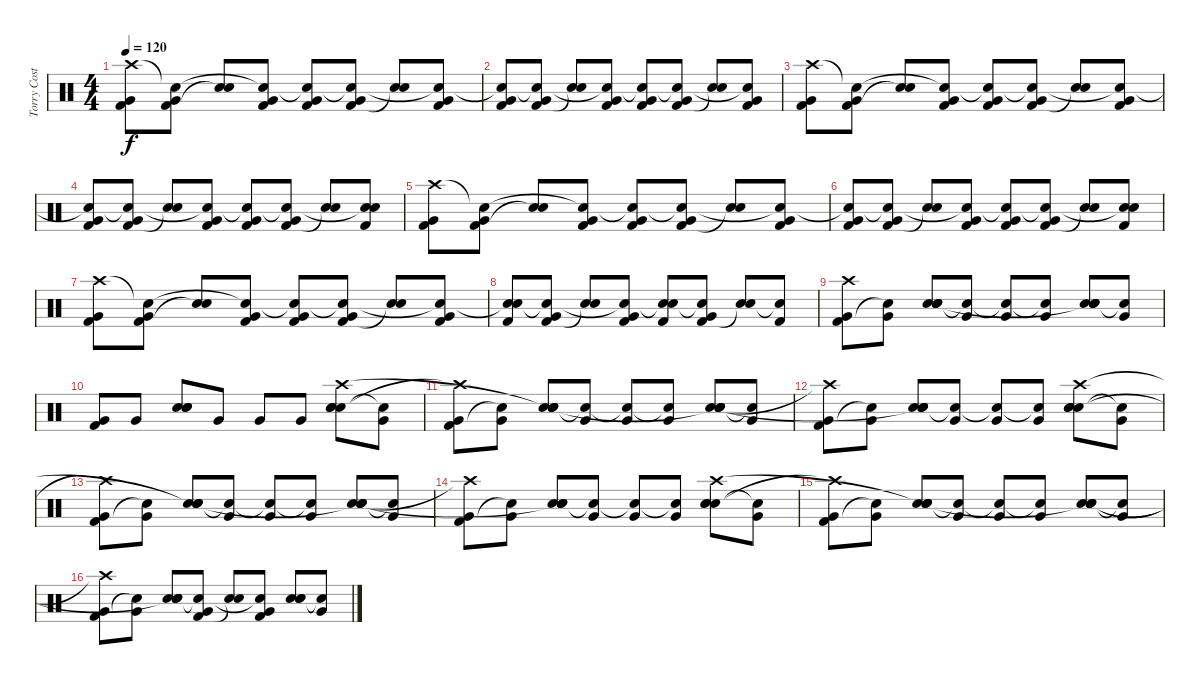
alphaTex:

\track ("Torry Costellano" "Torry Cost") {instrument percussion}
\staff {score}
\articulation defaults
\ts (4 4)
\tempo 120
\clef neutral
\ks c
("Very Low Tom (hit)" "Kick (hit) 2" "Crash high (hit)").8{dy f} ("Very Low Tom (hit)" "Kick (hit) 2" "Snare (hit)"{t}).8 ("Electric Snare (hit)" "Snare (hit)"{t}).8 ("Very Low Tom (hit)" "Kick (hit) 2" "Snare (hit)"{t}).8 ("Very Low Tom (hit)" "Kick (hit) 2" "Snare (hit)"{t}).8 ("Very Low Tom (hit)" "Kick (hit) 2" "Snare (hit)"{t}).8 ("Electric Snare (hit)" "Snare (hit)"{t}).8 ("Very Low Tom (hit)" "Kick (hit) 2" "Snare (hit)"{t}).8 |
("Very Low Tom (hit)" "Kick (hit) 2" "Snare (hit)"{t}).8 ("Very Low Tom (hit)" "Kick (hit) 2" "Snare (hit)"{t}).8 ("Electric Snare (hit)" "Snare (hit)"{t}).8 ("Very Low Tom (hit)" "Kick (hit) 2" "Snare (hit)"{t}).8 ("Very Low Tom (hit)" "Kick (hit) 2" "Snare (hit)"{t}).8 ("Very Low Tom (hit)" "Kick (hit) 2" "Snare (hit)"{t}).8 ("Electric Snare (hit)" "Snare (hit)"{t}).8 ("Very Low Tom (hit)" "Kick (hit) 2" "Snare (hit)"{t}).8 |
("Very Low Tom (hit)" "Kick (hit) 2" "Crash high (hit)").8 ("Very Low Tom (hit)" "Kick (hit) 2" "Snare (hit)"{t}).8 ("Electric Snare (hit)" "Snare (hit)"{t}).8 ("Very Low Tom (hit)" "Kick (hit) 2" "Snare (hit)"{t}).8 ("Very Low Tom (hit)" "Kick (hit) 2" "Snare (hit)"{t}).8 ("Very Low Tom (hit)" "Kick (hit) 2" "Snare (hit)"{t}).8 ("Electric Snare (hit)" "Snare (hit)"{t}).8 ("Very Low Tom (hit)" "Kick (hit) 2" "Snare (hit)"{t}).8 |
("Very Low Tom (hit)" "Kick (hit) 2" "Snare (hit)"{t}).8 ("Very Low Tom (hit)" "Kick (hit) 2" "Snare (hit)"{t}).8 ("Electric Snare (hit)" "Snare (hit)"{t}).8 ("Very Low Tom (hit)" "Kick (hit) 2" "Snare (hit)"{t}).8 ("Very Low Tom (hit)" "Kick (hit) 2" "Snare (hit)"{t}).8 ("Very Low Tom (hit)" "Kick (hit) 2" "Snare (hit)"{t}).8 ("Electric Snare (hit)" "Snare (hit)"{t}).8 ("Electric Snare (hit)" "Kick (hit) 2" "Snare (hit)"{t}).8 |
("Very Low Tom (hit)" "Kick (hit) 2" "Crash high (hit)").8 ("Very Low Tom (hit)" "Kick (hit) 2" "Snare (hit)"{t}).8 ("Electric Snare (hit)" "Snare (hit)"{t}).8 ("Very Low Tom (hit)" "Kick (hit) 2" "Snare (hit)"{t}).8 ("Very Low Tom (hit)" "Kick (hit) 2" "Snare (hit)"{t}).8 ("Very Low Tom (hit)" "Kick (hit) 2" "Snare (hit)"{t}).8 ("Electric Snare (hit)" "Snare (hit)"{t}).8 ("Very Low Tom (hit)" "Kick (hit) 2" "Snare (hit)"{t}).8 |
("Very Low Tom (hit)" "Kick (hit) 2" "Snare (hit)"{t}).8 ("Very Low Tom (hit)" "Kick (hit) 2" "Snare (hit)"{t}).8 ("Electric Snare (hit)" "Snare (hit)"{t}).8 ("Very Low Tom (hit)" "Kick (hit) 2" "Snare (hit)"{t}).8 ("Very Low Tom (hit)" "Kick (hit) 2" "Snare (hit)"{t}).8 ("Very Low Tom (hit)" "Kick (hit) 2" "Snare (hit)"{t}).8 ("Electric Snare (hit)" "Snare (hit)"{t}).8 ("Electric Snare (hit)" "Kick (hit) 2" "Snare (hit)"{t}).8 |
("Very Low Tom (hit)" "Kick (hit) 2" "Crash high (hit)").8 ("Very Low Tom (hit)" "Kick (hit) 2" "Snare (hit)"{t}).8 ("Electric Snare (hit)" "Snare (hit)"{t}).8 ("Very Low Tom (hit)" "Kick (hit) 2" "Snare (hit)"{t}).8 ("Very Low Tom (hit)" "Kick (hit) 2" "Snare (hit)"{t}).8 ("Very Low Tom (hit)" "Kick (hit) 2" "Snare (hit)"{t}).8 ("Electric Snare (hit)" "Snare (hit)"{t}).8 ("Very Low Tom (hit)" "Kick (hit) 2" "Snare (hit)"{t}).8 |
("Electric Snare (hit)" "Kick (hit) 2" "Snare (hit)"{t}).8 ("Very Low Tom (hit)" "Kick (hit) 2" "Snare (hit)"{t}).8 ("Electric Snare (hit)" "Snare (hit)"{t}).8 ("Very Low Tom (hit)" "Kick (hit) 2" "Snare (hit)"{t}).8 ("Electric Snare (hit)" "Kick (hit) 2" "Snare (hit)"{t}).8 ("Very Low Tom (hit)" "Kick (hit) 2" "Snare (hit)"{t}).8 ("Electric Snare (hit)" "Snare (hit)"{t}).8 ("Kick (hit) 2" "Snare (hit)"{t}).8 |
("Very Low Tom (hit)" "Kick (hit) 2" "Crash high (hit)").8 ("Very Low Tom (hit)" "Snare (hit)"{t}).8 ("Hand Clap (hit)" "Hand Clap (hit)" "Electric Snare (hit)" "Snare (hit)").8 ("Very Low Tom (hit)" "Snare (hit)"{t}).8 ("Very Low Tom (hit)" "Snare (hit)"{t}).8 ("Very Low Tom (hit)" "Snare (hit)"{t}).8 ("Hand Clap (hit)" "Hand Clap (hit)" "Electric Snare (hit)" "Snare (hit)"{t}).8 ("Very Low Tom (hit)" "Snare (hit)"{t}).8 |
("Very Low Tom (hit)" "Kick (hit) 2").8 "Very Low Tom (hit)".8 ("Hand Clap (hit)" "Hand Clap (hit)" "Electric Snare (hit)").8 "Very Low Tom (hit)".8 "Very Low Tom (hit)".8 "Very Low Tom (hit)".8 ("Hand Clap (hit)" "Hand Clap (hit)" "Electric Snare (hit)" "Crash high (hit)").8 ("Very Low Tom (hit)" "Snare (hit)"{t}).8 |
("Very Low Tom (hit)" "Kick (hit) 2" "Crash high (hit)"{t}).8 ("Very Low Tom (hit)" "Snare (hit)"{t}).8 ("Hand Clap (hit)" "Hand Clap (hit)" "Electric Snare (hit)" "Snare (hit)"{t}).8 ("Very Low Tom (hit)" "Snare (hit)"{t}).8 ("Very Low Tom (hit)" "Snare (hit)"{t}).8 ("Very Low Tom (hit)" "Snare (hit)"{t}).8 ("Hand Clap (hit)" "Hand Clap (hit)" "Electric Snare (hit)" "Snare (hit)"{t}).8 ("Very Low Tom (hit)" "Snare (hit)"{t}).8 |
("Very Low Tom (hit)" "Kick (hit) 2" "Crash high (hit)"{t}).8 ("Very Low Tom (hit)" "Snare (hit)"{t}).8 ("Hand Clap (hit)" "Hand Clap (hit)" "Electric Snare (hit)" "Snare (hit)"{t}).8 ("Very Low Tom (hit)" "Snare (hit)"{t}).8 ("Very Low Tom (hit)" "Snare (hit)"{t}).8 ("Very Low Tom (hit)" "Snare (hit)"{t}).8 ("Hand Clap (hit)" "Hand Clap (hit)" "Electric Snare (hit)" "Crash high (hit)").8 ("Very Low Tom (hit)" "Snare (hit)"{t}).8 |
("Very Low Tom (hit)" "Kick (hit) 2" "Crash high (hit)"{t}).8 ("Very Low Tom (hit)" "Snare (hit)"{t}).8 ("Hand Clap (hit)" "Hand Clap (hit)" "Electric Snare (hit)" "Snare (hit)"{t}).8 ("Very Low Tom (hit)" "Snare (hit)"{t}).8 ("Very Low Tom (hit)" "Snare (hit)"{t}).8 ("Very Low Tom (hit)" "Snare (hit)"{t}).8 ("Hand Clap (hit)" "Hand Clap (hit)" "Electric Snare (hit)" "Snare (hit)"{t}).8 ("Very Low Tom (hit)" "Snare (hit)"{t}).8 |
("Very Low Tom (hit)" "Kick (hit) 2" "Crash high (hit)"{t}).8 ("Very Low Tom (hit)" "Snare (hit)"{t}).8 ("Hand Clap (hit)" "Hand Clap (hit)" "Electric Snare (hit)" "Snare (hit)"{t}).8 ("Very Low Tom (hit)" "Snare (hit)"{t}).8 ("Very Low Tom (hit)" "Snare (hit)"{t}).8 ("Very Low Tom (hit)" "Snare (hit)"{t}).8 ("Hand Clap (hit)" "Hand Clap (hit)" "Electric Snare (hit)" "Crash high (hit)").8 ("Very Low Tom (hit)" "Snare (hit)"{t}).8 |
("Very Low Tom (hit)" "Kick (hit) 2" "Crash high (hit)"{t}).8 ("Very Low Tom (hit)" "Snare (hit)"{t}).8 ("Hand Clap (hit)" "Hand Clap (hit)" "Electric Snare (hit)" "Snare (hit)"{t}).8 ("Very Low Tom (hit)" "Snare (hit)"{t}).8 ("Very Low Tom (hit)" "Snare (hit)"{t}).8 ("Very Low Tom (hit)" "Snare (hit)"{t}).8 ("Hand Clap (hit)" "Hand Clap (hit)" "Electric Snare (hit)" "Snare (hit)"{t}).8 ("Very Low Tom (hit)" "Snare (hit)"{t}).8 |
("Very Low Tom (hit)" "Kick (hit) 2" "Crash high (hit)"{t}).8 ("Very Low Tom (hit)" "Snare (hit)"{t}).8 ("Hand Clap (hit)" "Hand Clap (hit)" "Electric Snare (hit)" "Snare (hit)"{t}).8 ("Very Low Tom (hit)" "Kick (hit) 2" "Snare (hit)"{t}).8 ("Electric Snare (hit)" "Snare (hit)"{t}).8 ("Very Low Tom (hit)" "Kick (hit) 2" "Snare (hit)"{t}).8 ("Hand Clap (hit)" "Hand Clap (hit)" "Electric Snare (hit)").8 ("Very Low Tom (hit)" "Snare (hit)"{t}).8
